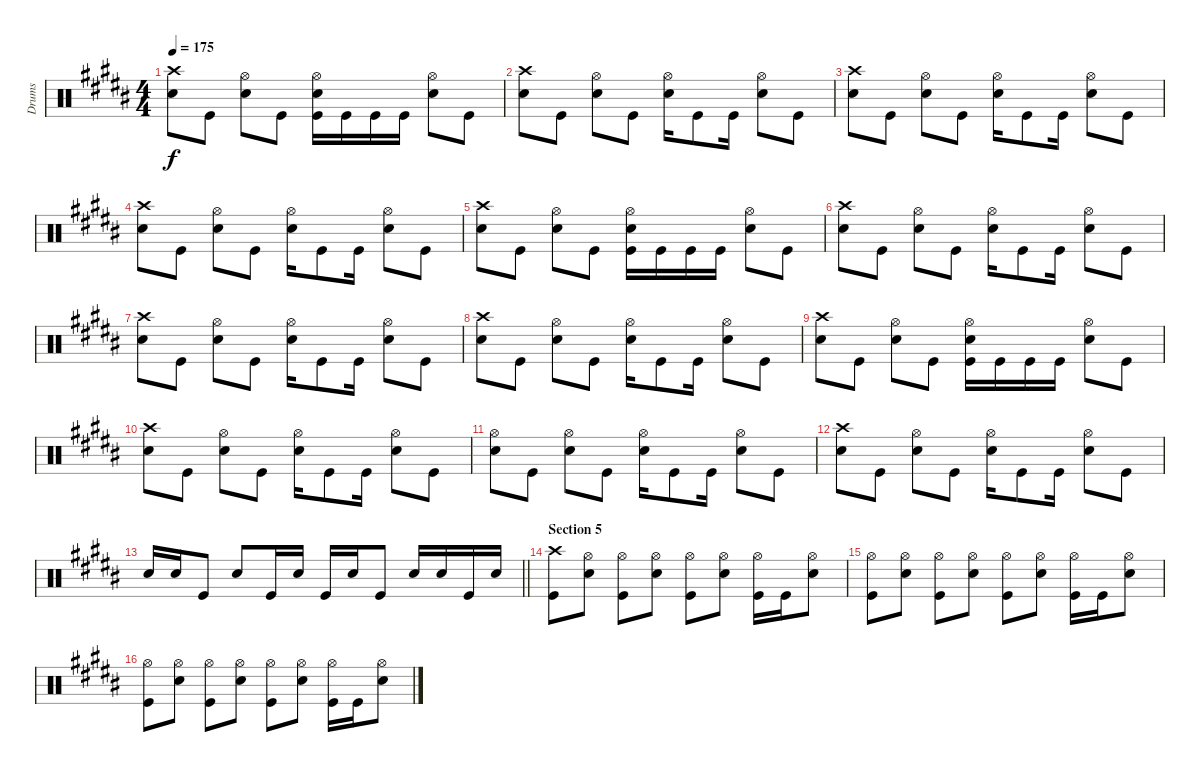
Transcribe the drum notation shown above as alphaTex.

\track ("Drums" "Drums") {instrument percussion}
\staff {score}
\articulation defaults
\ts (4 4)
\tempo 175
\clef neutral
\ks b
("Crash high (hit)" "Snare (hit) 2").8{dy f} "Kick (hit)".8 ("Hi-Hat (open)" "Snare (hit) 2").8 "Kick (hit)".8 ("Hi-Hat (open)" "Snare (hit) 2" "Kick (hit)").16 "Kick (hit)".16 "Kick (hit)".16 "Kick (hit)".16 ("Hi-Hat (open)" "Snare (hit) 2").8 "Kick (hit)".8 |
("Crash high (hit)" "Snare (hit) 2").8 "Kick (hit)".8 ("Hi-Hat (open)" "Snare (hit) 2").8 "Kick (hit)".8 ("Hi-Hat (open)" "Snare (hit) 2").16 "Kick (hit)".8 "Kick (hit)".16 ("Hi-Hat (open)" "Snare (hit) 2").8 "Kick (hit)".8 |
("Crash high (hit)" "Snare (hit) 2").8 "Kick (hit)".8 ("Hi-Hat (open)" "Snare (hit) 2").8 "Kick (hit)".8 ("Hi-Hat (open)" "Snare (hit) 2").16 "Kick (hit)".8 "Kick (hit)".16 ("Hi-Hat (open)" "Snare (hit) 2").8 "Kick (hit)".8 |
("Crash high (hit)" "Snare (hit) 2").8 "Kick (hit)".8 ("Hi-Hat (open)" "Snare (hit) 2").8 "Kick (hit)".8 ("Hi-Hat (open)" "Snare (hit) 2").16 "Kick (hit)".8 "Kick (hit)".16 ("Hi-Hat (open)" "Snare (hit) 2").8 "Kick (hit)".8 |
("Crash high (hit)" "Snare (hit) 2").8 "Kick (hit)".8 ("Hi-Hat (open)" "Snare (hit) 2").8 "Kick (hit)".8 ("Hi-Hat (open)" "Snare (hit) 2" "Kick (hit)").16 "Kick (hit)".16 "Kick (hit)".16 "Kick (hit)".16 ("Hi-Hat (open)" "Snare (hit) 2").8 "Kick (hit)".8 |
("Crash high (hit)" "Snare (hit) 2").8 "Kick (hit)".8 ("Hi-Hat (open)" "Snare (hit) 2").8 "Kick (hit)".8 ("Hi-Hat (open)" "Snare (hit) 2").16 "Kick (hit)".8 "Kick (hit)".16 ("Hi-Hat (open)" "Snare (hit) 2").8 "Kick (hit)".8 |
("Crash high (hit)" "Snare (hit) 2").8 "Kick (hit)".8 ("Hi-Hat (open)" "Snare (hit) 2").8 "Kick (hit)".8 ("Hi-Hat (open)" "Snare (hit) 2").16 "Kick (hit)".8 "Kick (hit)".16 ("Hi-Hat (open)" "Snare (hit) 2").8 "Kick (hit)".8 |
("Crash high (hit)" "Snare (hit) 2").8 "Kick (hit)".8 ("Hi-Hat (open)" "Snare (hit) 2").8 "Kick (hit)".8 ("Hi-Hat (open)" "Snare (hit) 2").16 "Kick (hit)".8 "Kick (hit)".16 ("Hi-Hat (open)" "Snare (hit) 2").8 "Kick (hit)".8 |
("Crash high (hit)" "Snare (hit) 2").8 "Kick (hit)".8 ("Hi-Hat (open)" "Snare (hit) 2").8 "Kick (hit)".8 ("Hi-Hat (open)" "Snare (hit) 2" "Kick (hit)").16 "Kick (hit)".16 "Kick (hit)".16 "Kick (hit)".16 ("Hi-Hat (open)" "Snare (hit) 2").8 "Kick (hit)".8 |
("Crash high (hit)" "Snare (hit) 2").8 "Kick (hit)".8 ("Hi-Hat (open)" "Snare (hit) 2").8 "Kick (hit)".8 ("Hi-Hat (open)" "Snare (hit) 2").16 "Kick (hit)".8 "Kick (hit)".16 ("Hi-Hat (open)" "Snare (hit) 2").8 "Kick (hit)".8 |
("Hi-Hat (open)" "Snare (hit) 2").8 "Kick (hit)".8 ("Hi-Hat (open)" "Snare (hit) 2").8 "Kick (hit)".8 ("Hi-Hat (open)" "Snare (hit) 2").16 "Kick (hit)".8 "Kick (hit)".16 ("Hi-Hat (open)" "Snare (hit) 2").8 "Kick (hit)".8 |
("Crash high (hit)" "Snare (hit) 2").8 "Kick (hit)".8 ("Hi-Hat (open)" "Snare (hit) 2").8 "Kick (hit)".8 ("Hi-Hat (open)" "Snare (hit) 2").16 "Kick (hit)".8 "Kick (hit)".16 ("Hi-Hat (open)" "Snare (hit) 2").8 "Kick (hit)".8 |
\barLineRight lightlight "Snare (hit) 2".16 "Snare (hit) 2".16 "Kick (hit)".8 "Snare (hit) 2".8 "Kick (hit)".16 "Snare (hit) 2".16 "Kick (hit)".16 "Snare (hit) 2".16 "Kick (hit)".8 "Snare (hit) 2".16 "Snare (hit) 2".16 "Kick (hit)".16 "Snare (hit) 2".16
|
\section ("" "Section 5")
("Crash high (hit)" "Kick (hit)").8 ("Hi-Hat (open)" "Snare (hit) 2").8 ("Hi-Hat (open)" "Kick (hit)").8 ("Hi-Hat (open)" "Snare (hit) 2").8 ("Hi-Hat (open)" "Kick (hit)").8 ("Hi-Hat (open)" "Snare (hit) 2").8 ("Hi-Hat (open)" "Kick (hit)").16 "Kick (hit)".16 ("Hi-Hat (open)" "Snare (hit) 2").8 |
("Hi-Hat (open)" "Kick (hit)").8 ("Hi-Hat (open)" "Snare (hit) 2").8 ("Hi-Hat (open)" "Kick (hit)").8 ("Hi-Hat (open)" "Snare (hit) 2").8 ("Hi-Hat (open)" "Kick (hit)").8 ("Hi-Hat (open)" "Snare (hit) 2").8 ("Hi-Hat (open)" "Kick (hit)").16 "Kick (hit)".16 ("Hi-Hat (open)" "Snare (hit) 2").8 |
("Hi-Hat (open)" "Kick (hit)").8 ("Hi-Hat (open)" "Snare (hit) 2").8 ("Hi-Hat (open)" "Kick (hit)").8 ("Hi-Hat (open)" "Snare (hit) 2").8 ("Hi-Hat (open)" "Kick (hit)").8 ("Hi-Hat (open)" "Snare (hit) 2").8 ("Hi-Hat (open)" "Kick (hit)").16 "Kick (hit)".16 ("Hi-Hat (open)" "Snare (hit) 2").8
